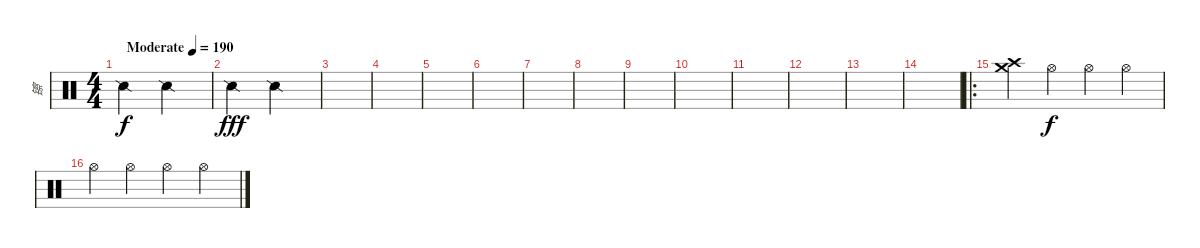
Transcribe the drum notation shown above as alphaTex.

\track ("镲" "镲") {instrument percussion}
\staff {score}
\articulation defaults
\ts (4 4)
\tempo (190 "Moderate")
\clef neutral
\ks c "Snare (side stick) 2".2{dy f} "Snare (side stick) 2".2
|
"Snare (side stick) 2".2{dy fff} "Snare (side stick) 2".2 |
|
|
|
|
|
|
|
|
|
|
|
|
\ro
("Crash high (hit)" "Crash medium (hit)").4 "Hi-Hat (open)".4{dy f} "Hi-Hat (open)".4 "Hi-Hat (open)".4 |
"Hi-Hat (open)".4 "Hi-Hat (open)".4 "Hi-Hat (open)".4 "Hi-Hat (open)".4
